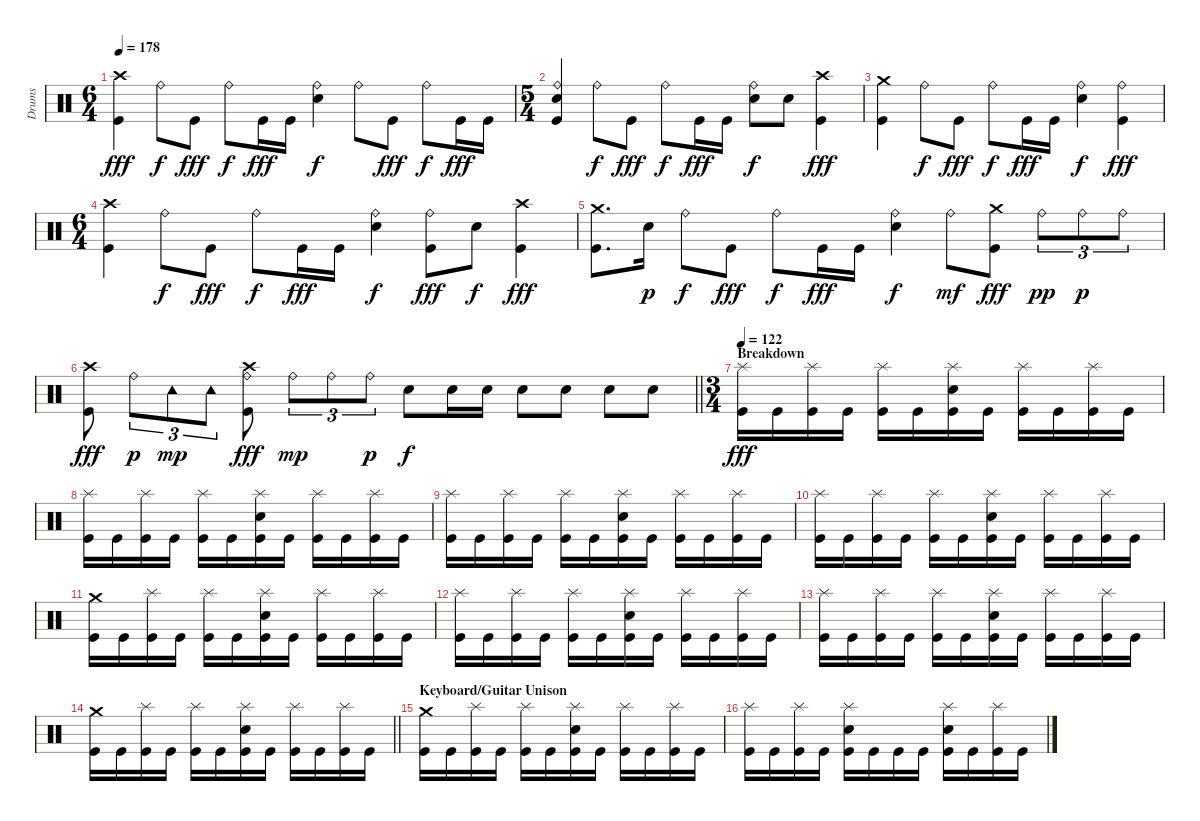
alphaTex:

\track ("Drums" "Drums") {instrument percussion}
\staff {score}
\articulation defaults
\ts (6 4)
\tempo 178
\clef neutral
\ks c
("Crash high (hit)" "Kick (hit)").4{dy fff} "Ride (bell)".8{dy f} "Kick (hit)".8{dy fff} "Ride (bell)".8{dy f} "Kick (hit)".16{dy fff} "Kick (hit)".16 ("Ride (bell)" "Electric Snare (hit)").4{dy f} "Ride (bell)".8 "Kick (hit)".8{dy fff} "Ride (bell)".8{dy f} "Kick (hit)".16{dy fff} "Kick (hit)".16 |
\ts (5 4)
("Ride (bell)" "Electric Snare (hit)" "Kick (hit)").4 "Ride (bell)".8{dy f} "Kick (hit)".8{dy fff} "Ride (bell)".8{dy f} "Kick (hit)".16{dy fff} "Kick (hit)".16 ("Ride (bell)" "Electric Snare (hit)").8{dy f} "Electric Snare (hit)".8 ("Crash high (hit)" "Kick (hit)").4{dy fff} |
("Crash medium (hit)" "Kick (hit)").4 "Ride (bell)".8{dy f} "Kick (hit)".8{dy fff} "Ride (bell)".8{dy f} "Kick (hit)".16{dy fff} "Kick (hit)".16 ("Ride (bell)" "Electric Snare (hit)").4{dy f} ("Ride (bell)" "Kick (hit)").4{dy fff} |
\ts (6 4)
("Crash high (hit)" "Kick (hit)").4 "Ride (bell)".8{dy f} "Kick (hit)".8{dy fff} "Ride (bell)".8{dy f} "Kick (hit)".16{dy fff} "Kick (hit)".16 ("Ride (bell)" "Electric Snare (hit)").4{dy f} ("Ride (bell)" "Kick (hit)").8{dy fff} "Electric Snare (hit)".8{dy f} ("Crash high (hit)" "Kick (hit)").4{dy fff} |
("Crash medium (hit)" "Kick (hit)").8{d} "Electric Snare (hit)".16{dy p} "Ride (bell)".8{dy f} "Kick (hit)".8{dy fff} "Ride (bell)".8{dy f} "Kick (hit)".16{dy fff} "Kick (hit)".16 ("Ride (bell)" "Electric Snare (hit)").4{dy f} "Ride (bell)".8{dy mf} ("Crash medium (hit)" "Kick (hit)").8{dy fff} "Ride (bell)".8{tu (3 2) dy pp} "Ride (bell)".8{tu (3 2) dy p} "Ride (bell)".8{tu (3 2)} |
\barLineRight lightlight
("Crash high (hit)" "Kick (hit)").8{dy fff} "Ride (bell)".8{tu (3 2) dy p} "Tambourine (hit)".8{tu (3 2) dy mp} "Tambourine (hit)".8{tu (3 2)} ("Crash high (hit)" "Ride (bell)" "Kick (hit)").8{dy fff} "Ride (bell)".8{tu (3 2) dy mp} "Ride (bell)".8{tu (3 2)} "Ride (bell)".8{tu (3 2) dy p} "Electric Snare (hit)".8{dy f} "Electric Snare (hit)".16 "Electric Snare (hit)".16 "Electric Snare (hit)".8 "Electric Snare (hit)".8 "Electric Snare (hit)".8 "Electric Snare (hit)".8 |
\ts (3 4)
\section ("" "Breakdown")
\tempo 122
("Splash (hit)" "Kick (hit)").16{dy fff} "Kick (hit)".16 ("Splash (hit)" "Kick (hit)").16 "Kick (hit)".16 ("Splash (hit)" "Kick (hit)").16 "Kick (hit)".16 ("Splash (hit)" "Electric Snare (hit)" "Kick (hit)").16 "Kick (hit)".16 ("Splash (hit)" "Kick (hit)").16 "Kick (hit)".16 ("Splash (hit)" "Kick (hit)").16 "Kick (hit)".16 |
("Splash (hit)" "Kick (hit)").16 "Kick (hit)".16 ("Splash (hit)" "Kick (hit)").16 "Kick (hit)".16 ("Splash (hit)" "Kick (hit)").16 "Kick (hit)".16 ("Splash (hit)" "Electric Snare (hit)" "Kick (hit)").16 "Kick (hit)".16 ("Splash (hit)" "Kick (hit)").16 "Kick (hit)".16 ("Splash (hit)" "Kick (hit)").16 "Kick (hit)".16 |
("Splash (hit)" "Kick (hit)").16 "Kick (hit)".16 ("Splash (hit)" "Kick (hit)").16 "Kick (hit)".16 ("Splash (hit)" "Kick (hit)").16 "Kick (hit)".16 ("Splash (hit)" "Electric Snare (hit)" "Kick (hit)").16 "Kick (hit)".16 ("Splash (hit)" "Kick (hit)").16 "Kick (hit)".16 ("Splash (hit)" "Kick (hit)").16 "Kick (hit)".16 |
("Splash (hit)" "Kick (hit)").16 "Kick (hit)".16 ("Splash (hit)" "Kick (hit)").16 "Kick (hit)".16 ("Splash (hit)" "Kick (hit)").16 "Kick (hit)".16 ("Splash (hit)" "Electric Snare (hit)" "Kick (hit)").16 "Kick (hit)".16 ("Splash (hit)" "Kick (hit)").16 "Kick (hit)".16 ("Splash (hit)" "Kick (hit)").16 "Kick (hit)".16 |
("Crash medium (hit)" "Kick (hit)").16 "Kick (hit)".16 ("Splash (hit)" "Kick (hit)").16 "Kick (hit)".16 ("Splash (hit)" "Kick (hit)").16 "Kick (hit)".16 ("Splash (hit)" "Electric Snare (hit)" "Kick (hit)").16 "Kick (hit)".16 ("Splash (hit)" "Kick (hit)").16 "Kick (hit)".16 ("Splash (hit)" "Kick (hit)").16 "Kick (hit)".16 |
("Splash (hit)" "Kick (hit)").16 "Kick (hit)".16 ("Splash (hit)" "Kick (hit)").16 "Kick (hit)".16 ("Splash (hit)" "Kick (hit)").16 "Kick (hit)".16 ("Splash (hit)" "Electric Snare (hit)" "Kick (hit)").16 "Kick (hit)".16 ("Splash (hit)" "Kick (hit)").16 "Kick (hit)".16 ("Splash (hit)" "Kick (hit)").16 "Kick (hit)".16 |
("Splash (hit)" "Kick (hit)").16 "Kick (hit)".16 ("Splash (hit)" "Kick (hit)").16 "Kick (hit)".16 ("Splash (hit)" "Kick (hit)").16 "Kick (hit)".16 ("Splash (hit)" "Electric Snare (hit)" "Kick (hit)").16 "Kick (hit)".16 ("Splash (hit)" "Kick (hit)").16 "Kick (hit)".16 ("Splash (hit)" "Kick (hit)").16 "Kick (hit)".16 |
\barLineRight lightlight
("Crash medium (hit)" "Kick (hit)").16 "Kick (hit)".16 ("Splash (hit)" "Kick (hit)").16 "Kick (hit)".16 ("Splash (hit)" "Kick (hit)").16 "Kick (hit)".16 ("Splash (hit)" "Electric Snare (hit)" "Kick (hit)").16 "Kick (hit)".16 ("Splash (hit)" "Kick (hit)").16 "Kick (hit)".16 ("Splash (hit)" "Kick (hit)").16 "Kick (hit)".16 |
\section ("" "Keyboard/Guitar Unison")
("Crash medium (hit)" "Kick (hit)").16 "Kick (hit)".16 ("Splash (hit)" "Kick (hit)").16 "Kick (hit)".16 ("Splash (hit)" "Kick (hit)").16 "Kick (hit)".16 ("Splash (hit)" "Electric Snare (hit)" "Kick (hit)").16 "Kick (hit)".16 ("Splash (hit)" "Kick (hit)").16 "Kick (hit)".16 ("Splash (hit)" "Kick (hit)").16 "Kick (hit)".16 |
("Splash (hit)" "Kick (hit)").16 "Kick (hit)".16 ("Splash (hit)" "Kick (hit)").16 "Kick (hit)".16 ("Splash (hit)" "Electric Snare (hit)" "Kick (hit)").16 "Kick (hit)".16 "Kick (hit)".16 "Kick (hit)".16 ("Splash (hit)" "Electric Snare (hit)" "Kick (hit)").16 "Kick (hit)".16 ("Splash (hit)" "Kick (hit)").16 "Kick (hit)".16
